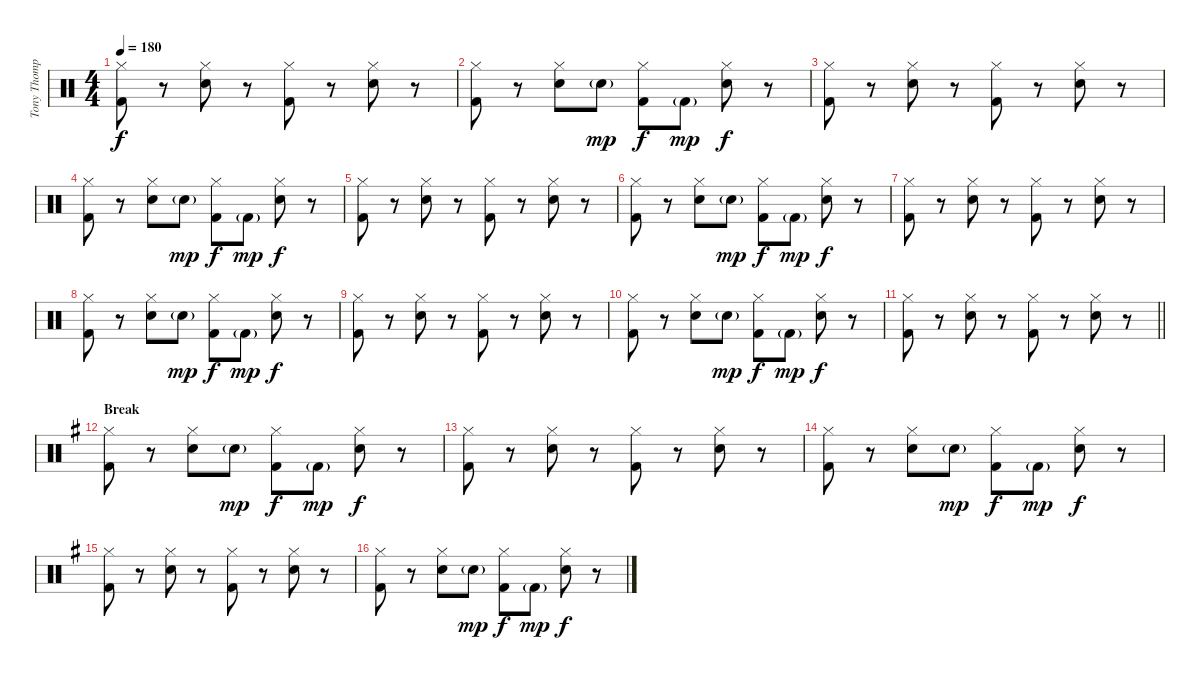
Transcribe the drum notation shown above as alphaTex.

\track ("Tony Thompson (Drums)" "Tony Thomp") {instrument percussion}
\staff {score}
\articulation defaults
\ts (4 4)
\tempo 180
\clef neutral
\ks c
("Hi-Hat (closed)" "Kick (hit) 2").8{dy f} r.8 ("Hi-Hat (closed)" "Electric Snare (hit)").8 r.8 ("Hi-Hat (closed)" "Kick (hit) 2").8 r.8 ("Hi-Hat (closed)" "Electric Snare (hit)").8 r.8 |
("Hi-Hat (closed)" "Kick (hit) 2").8 r.8 ("Hi-Hat (closed)" "Electric Snare (hit)").8 "Electric Snare (hit)"{g}.8{dy mp} ("Hi-Hat (closed)" "Kick (hit) 2").8{dy f} "Kick (hit) 2"{g}.8{dy mp} ("Hi-Hat (closed)" "Electric Snare (hit)").8{dy f} r.8 |
("Hi-Hat (closed)" "Kick (hit) 2").8 r.8 ("Hi-Hat (closed)" "Electric Snare (hit)").8 r.8 ("Hi-Hat (closed)" "Kick (hit) 2").8 r.8 ("Hi-Hat (closed)" "Electric Snare (hit)").8 r.8 |
("Hi-Hat (closed)" "Kick (hit) 2").8 r.8 ("Hi-Hat (closed)" "Electric Snare (hit)").8 "Electric Snare (hit)"{g}.8{dy mp} ("Hi-Hat (closed)" "Kick (hit) 2").8{dy f} "Kick (hit) 2"{g}.8{dy mp} ("Hi-Hat (closed)" "Electric Snare (hit)").8{dy f} r.8 |
("Hi-Hat (closed)" "Kick (hit) 2").8 r.8 ("Hi-Hat (closed)" "Electric Snare (hit)").8 r.8 ("Hi-Hat (closed)" "Kick (hit) 2").8 r.8 ("Hi-Hat (closed)" "Electric Snare (hit)").8 r.8 |
("Hi-Hat (closed)" "Kick (hit) 2").8 r.8 ("Hi-Hat (closed)" "Electric Snare (hit)").8 "Electric Snare (hit)"{g}.8{dy mp} ("Hi-Hat (closed)" "Kick (hit) 2").8{dy f} "Kick (hit) 2"{g}.8{dy mp} ("Hi-Hat (closed)" "Electric Snare (hit)").8{dy f} r.8 |
("Hi-Hat (closed)" "Kick (hit) 2").8 r.8 ("Hi-Hat (closed)" "Electric Snare (hit)").8 r.8 ("Hi-Hat (closed)" "Kick (hit) 2").8 r.8 ("Hi-Hat (closed)" "Electric Snare (hit)").8 r.8 |
("Hi-Hat (closed)" "Kick (hit) 2").8 r.8 ("Hi-Hat (closed)" "Electric Snare (hit)").8 "Electric Snare (hit)"{g}.8{dy mp} ("Hi-Hat (closed)" "Kick (hit) 2").8{dy f} "Kick (hit) 2"{g}.8{dy mp} ("Hi-Hat (closed)" "Electric Snare (hit)").8{dy f} r.8 |
("Hi-Hat (closed)" "Kick (hit) 2").8 r.8 ("Hi-Hat (closed)" "Electric Snare (hit)").8 r.8 ("Hi-Hat (closed)" "Kick (hit) 2").8 r.8 ("Hi-Hat (closed)" "Electric Snare (hit)").8 r.8 |
("Hi-Hat (closed)" "Kick (hit) 2").8 r.8 ("Hi-Hat (closed)" "Electric Snare (hit)").8 "Electric Snare (hit)"{g}.8{dy mp} ("Hi-Hat (closed)" "Kick (hit) 2").8{dy f} "Kick (hit) 2"{g}.8{dy mp} ("Hi-Hat (closed)" "Electric Snare (hit)").8{dy f} r.8 |
\barLineRight lightlight
("Hi-Hat (closed)" "Kick (hit) 2").8 r.8 ("Hi-Hat (closed)" "Electric Snare (hit)").8 r.8 ("Hi-Hat (closed)" "Kick (hit) 2").8 r.8 ("Hi-Hat (closed)" "Electric Snare (hit)").8 r.8 |
\section ("" "Break")
\ks g
("Hi-Hat (closed)" "Kick (hit) 2").8 r.8 ("Hi-Hat (closed)" "Electric Snare (hit)").8 "Electric Snare (hit)"{g}.8{dy mp} ("Hi-Hat (closed)" "Kick (hit) 2").8{dy f} "Kick (hit) 2"{g}.8{dy mp} ("Hi-Hat (closed)" "Electric Snare (hit)").8{dy f} r.8 |
("Hi-Hat (closed)" "Kick (hit) 2").8 r.8 ("Hi-Hat (closed)" "Electric Snare (hit)").8 r.8 ("Hi-Hat (closed)" "Kick (hit) 2").8 r.8 ("Hi-Hat (closed)" "Electric Snare (hit)").8 r.8 |
("Hi-Hat (closed)" "Kick (hit) 2").8 r.8 ("Hi-Hat (closed)" "Electric Snare (hit)").8 "Electric Snare (hit)"{g}.8{dy mp} ("Hi-Hat (closed)" "Kick (hit) 2").8{dy f} "Kick (hit) 2"{g}.8{dy mp} ("Hi-Hat (closed)" "Electric Snare (hit)").8{dy f} r.8 |
("Hi-Hat (closed)" "Kick (hit) 2").8 r.8 ("Hi-Hat (closed)" "Electric Snare (hit)").8 r.8 ("Hi-Hat (closed)" "Kick (hit) 2").8 r.8 ("Hi-Hat (closed)" "Electric Snare (hit)").8 r.8 |
("Hi-Hat (closed)" "Kick (hit) 2").8 r.8 ("Hi-Hat (closed)" "Electric Snare (hit)").8 "Electric Snare (hit)"{g}.8{dy mp} ("Hi-Hat (closed)" "Kick (hit) 2").8{dy f} "Kick (hit) 2"{g}.8{dy mp} ("Hi-Hat (closed)" "Electric Snare (hit)").8{dy f} r.8
